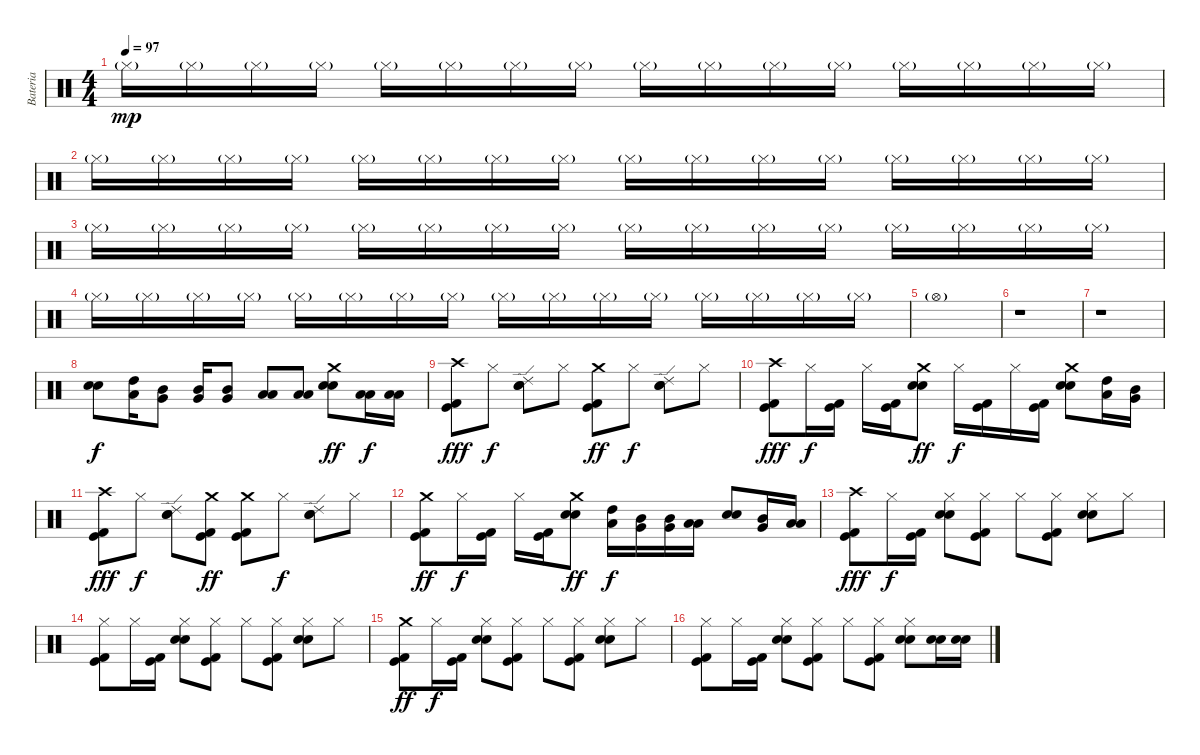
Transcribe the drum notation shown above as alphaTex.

\track ("Bateria" "Bateria") {instrument percussion}
\staff {score}
\articulation defaults
\ts (4 4)
\tempo 97
\clef neutral
\ks c "Hi-Hat (closed)"{g}.16{dy mp} "Hi-Hat (closed)"{g}.16 "Hi-Hat (closed)"{g}.16 "Hi-Hat (closed)"{g}.16 "Hi-Hat (closed)"{g}.16 "Hi-Hat (closed)"{g}.16 "Hi-Hat (closed)"{g}.16 "Hi-Hat (closed)"{g}.16 "Hi-Hat (closed)"{g}.16 "Hi-Hat (closed)"{g}.16 "Hi-Hat (closed)"{g}.16 "Hi-Hat (closed)"{g}.16 "Hi-Hat (closed)"{g}.16 "Hi-Hat (closed)"{g}.16 "Hi-Hat (closed)"{g}.16 "Hi-Hat (closed)"{g}.16
|
"Hi-Hat (closed)"{g}.16 "Hi-Hat (closed)"{g}.16 "Hi-Hat (closed)"{g}.16 "Hi-Hat (closed)"{g}.16 "Hi-Hat (closed)"{g}.16 "Hi-Hat (closed)"{g}.16 "Hi-Hat (closed)"{g}.16 "Hi-Hat (closed)"{g}.16 "Hi-Hat (closed)"{g}.16 "Hi-Hat (closed)"{g}.16 "Hi-Hat (closed)"{g}.16 "Hi-Hat (closed)"{g}.16 "Hi-Hat (closed)"{g}.16 "Hi-Hat (closed)"{g}.16 "Hi-Hat (closed)"{g}.16 "Hi-Hat (closed)"{g}.16 |
"Hi-Hat (closed)"{g}.16 "Hi-Hat (closed)"{g}.16 "Hi-Hat (closed)"{g}.16 "Hi-Hat (closed)"{g}.16 "Hi-Hat (closed)"{g}.16 "Hi-Hat (closed)"{g}.16 "Hi-Hat (closed)"{g}.16 "Hi-Hat (closed)"{g}.16 "Hi-Hat (closed)"{g}.16 "Hi-Hat (closed)"{g}.16 "Hi-Hat (closed)"{g}.16 "Hi-Hat (closed)"{g}.16 "Hi-Hat (closed)"{g}.16 "Hi-Hat (closed)"{g}.16 "Hi-Hat (closed)"{g}.16 "Hi-Hat (closed)"{g}.16 |
"Hi-Hat (closed)"{g}.16 "Hi-Hat (closed)"{g}.16 "Hi-Hat (closed)"{g}.16 "Hi-Hat (closed)"{g}.16 "Hi-Hat (closed)"{g}.16 "Hi-Hat (closed)"{g}.16 "Hi-Hat (closed)"{g}.16 "Hi-Hat (closed)"{g}.16 "Hi-Hat (closed)"{g}.16 "Hi-Hat (closed)"{g}.16 "Hi-Hat (closed)"{g}.16 "Hi-Hat (closed)"{g}.16 "Hi-Hat (closed)"{g}.16 "Hi-Hat (closed)"{g}.16 "Hi-Hat (closed)"{g}.16 "Hi-Hat (closed)"{g}.16 |
"Hi-Hat (open)"{g}.1 |
r.1 |
r.1 |
("Electric Snare (hit)" "Snare (hit) 2").8{dy f} ("High Tom (hit)" "Low Tom (hit)").16 ("Mid Tom (hit)" "Very Low Tom (hit)").8 ("Mid Tom (hit)" "Very Low Tom (hit)").16 ("Mid Tom (hit)" "Very Low Tom (hit)").8 ("Low Tom (hit)" "Low Floor Tom (hit)").8 ("Low Tom (hit)" "Low Floor Tom (hit)").8 ("Crash medium (hit)" "Electric Snare (hit)" "Snare (hit) 2").8{dy ff} ("Low Tom (hit)" "Low Floor Tom (hit)").16{dy f} ("Low Tom (hit)" "Low Floor Tom (hit)").16 |
("Crash high (hit)" "Kick (hit) 2" "Kick (hit)").8{dy fff} "Hi-Hat (closed)".8{dy f} ("Ride (edge) 2" "Electric Snare (hit)" "Snare (hit) 2").8 "Hi-Hat (closed)".8 ("Crash medium (hit)" "Kick (hit) 2" "Kick (hit)").8{dy ff} "Hi-Hat (closed)".8{dy f} ("Ride (edge) 2" "Electric Snare (hit)" "Snare (hit) 2").8 "Hi-Hat (closed)".8 |
("Crash high (hit)" "Kick (hit) 2" "Kick (hit)").8{dy fff} "Hi-Hat (closed)".16{dy f} ("Kick (hit) 2" "Kick (hit)").16 "Hi-Hat (closed)".16 ("Kick (hit) 2" "Kick (hit)").16 ("Crash medium (hit)" "Electric Snare (hit)" "Snare (hit) 2").8{dy ff} "Hi-Hat (closed)".16{dy f} ("Kick (hit) 2" "Kick (hit)").16 "Hi-Hat (closed)".16 ("Kick (hit) 2" "Kick (hit)").16 ("Crash medium (hit)" "Electric Snare (hit)" "Snare (hit) 2").8 ("High Tom (hit)" "Low Tom (hit)").16 ("Mid Tom (hit)" "Very Low Tom (hit)").16 |
("Crash high (hit)" "Kick (hit) 2" "Kick (hit)").8{dy fff} "Hi-Hat (closed)".8{dy f} ("Ride (edge) 2" "Electric Snare (hit)" "Snare (hit) 2").8 ("Crash medium (hit)" "Kick (hit) 2" "Kick (hit)").8{dy ff} ("Crash medium (hit)" "Kick (hit) 2" "Kick (hit)").8 "Hi-Hat (closed)".8{dy f} ("Ride (edge) 2" "Electric Snare (hit)" "Snare (hit) 2").8 "Hi-Hat (closed)".8 |
("Crash medium (hit)" "Kick (hit) 2" "Kick (hit)").8{dy ff} "Hi-Hat (closed)".16{dy f} ("Kick (hit) 2" "Kick (hit)").16 "Hi-Hat (closed)".16 ("Kick (hit) 2" "Kick (hit)").16 ("Crash medium (hit)" "Electric Snare (hit)" "Snare (hit) 2").8{dy ff} ("High Tom (hit)" "Low Tom (hit)").16{dy f} ("Mid Tom (hit)" "Very Low Tom (hit)").16 ("Mid Tom (hit)" "Very Low Tom (hit)").16 ("Low Tom (hit)" "Low Floor Tom (hit)").16 ("Electric Snare (hit)" "Snare (hit) 2").8 ("Mid Tom (hit)" "Very Low Tom (hit)").16 ("Low Tom (hit)" "Low Floor Tom (hit)").16 |
("Crash high (hit)" "Kick (hit) 2" "Kick (hit)").8{dy fff} "Hi-Hat (closed)".16{dy f} ("Kick (hit) 2" "Kick (hit)").16 ("Hi-Hat (closed)" "Electric Snare (hit)" "Snare (hit) 2").8 ("Hi-Hat (closed)" "Kick (hit) 2" "Kick (hit)").8 "Hi-Hat (closed)".8 ("Hi-Hat (closed)" "Kick (hit) 2" "Kick (hit)").8 ("Hi-Hat (closed)" "Electric Snare (hit)" "Snare (hit) 2").8 "Hi-Hat (closed)".8 |
("Hi-Hat (closed)" "Kick (hit) 2" "Kick (hit)").8 "Hi-Hat (closed)".16 ("Kick (hit) 2" "Kick (hit)").16 ("Hi-Hat (closed)" "Electric Snare (hit)" "Snare (hit) 2").8 ("Hi-Hat (closed)" "Kick (hit) 2" "Kick (hit)").8 "Hi-Hat (closed)".8 ("Hi-Hat (closed)" "Kick (hit) 2" "Kick (hit)").8 ("Hi-Hat (closed)" "Electric Snare (hit)" "Snare (hit) 2").8 "Hi-Hat (closed)".8 |
("Crash medium (hit)" "Kick (hit) 2" "Kick (hit)").8{dy ff} "Hi-Hat (closed)".16{dy f} ("Kick (hit) 2" "Kick (hit)").16 ("Hi-Hat (closed)" "Electric Snare (hit)" "Snare (hit) 2").8 ("Hi-Hat (closed)" "Kick (hit) 2" "Kick (hit)").8 "Hi-Hat (closed)".8 ("Hi-Hat (closed)" "Kick (hit) 2" "Kick (hit)").8 ("Hi-Hat (closed)" "Electric Snare (hit)" "Snare (hit) 2").8 "Hi-Hat (closed)".8 |
("Hi-Hat (closed)" "Kick (hit) 2" "Kick (hit)").8 "Hi-Hat (closed)".16 ("Kick (hit) 2" "Kick (hit)").16 ("Hi-Hat (closed)" "Electric Snare (hit)" "Snare (hit) 2").8 ("Hi-Hat (closed)" "Kick (hit) 2" "Kick (hit)").8 "Hi-Hat (closed)".8 ("Hi-Hat (closed)" "Kick (hit) 2" "Kick (hit)").8 ("Hi-Hat (closed)" "Electric Snare (hit)" "Snare (hit) 2").8 ("Electric Snare (hit)" "Snare (hit) 2").16 ("Electric Snare (hit)" "Snare (hit) 2").16
